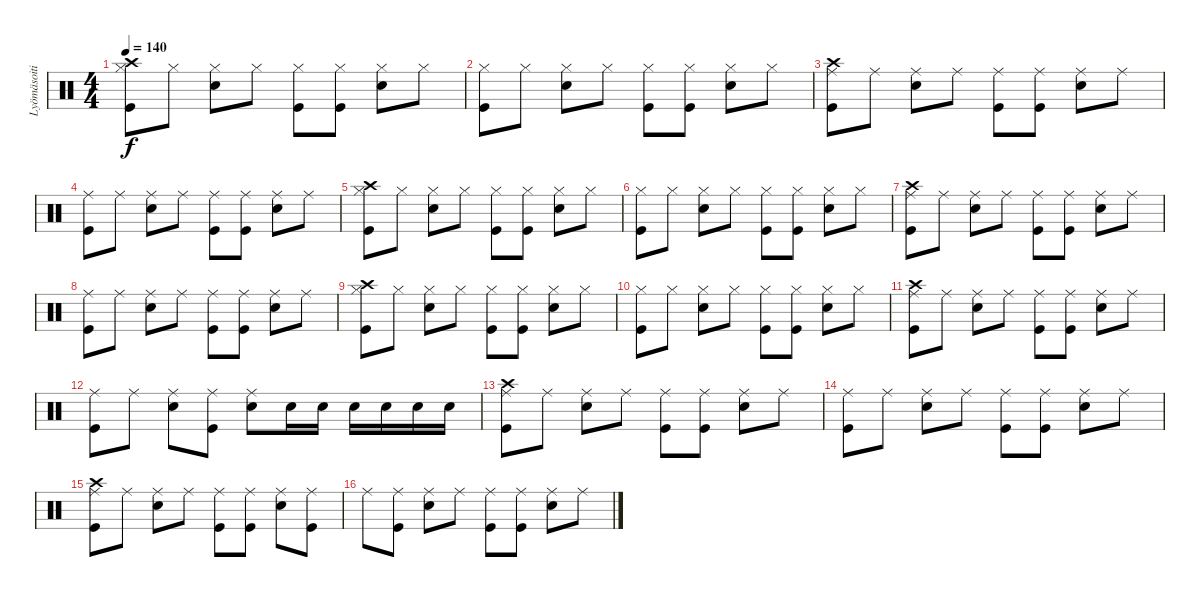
\track ("Lyömäsoitin" "Lyömäsoiti") {instrument percussion}
\staff {score}
\articulation defaults
\ts (4 4)
\tempo 140
\clef neutral
\ks c
("Crash high (hit)" "Hi-Hat (closed)" "Kick (hit)").8{dy f} "Hi-Hat (closed)".8 ("Hi-Hat (closed)" "Snare (hit) 2").8 "Hi-Hat (closed)".8 ("Hi-Hat (closed)" "Kick (hit)").8 ("Hi-Hat (closed)" "Kick (hit)").8 ("Hi-Hat (closed)" "Snare (hit) 2").8 "Hi-Hat (closed)".8 |
("Hi-Hat (closed)" "Kick (hit)").8 "Hi-Hat (closed)".8 ("Hi-Hat (closed)" "Snare (hit) 2").8 "Hi-Hat (closed)".8 ("Hi-Hat (closed)" "Kick (hit)").8 ("Hi-Hat (closed)" "Kick (hit)").8 ("Hi-Hat (closed)" "Snare (hit) 2").8 "Hi-Hat (closed)".8 |
("Crash high (hit)" "Ride (middle)" "Kick (hit)").8 "Ride (middle)".8 ("Ride (middle)" "Snare (hit) 2").8 "Ride (middle)".8 ("Ride (middle)" "Kick (hit)").8 ("Ride (middle)" "Kick (hit)").8 ("Ride (middle)" "Snare (hit) 2").8 "Ride (middle)".8 |
("Ride (middle)" "Kick (hit)").8 "Ride (middle)".8 ("Ride (middle)" "Snare (hit) 2").8 "Ride (middle)".8 ("Ride (middle)" "Kick (hit)").8 ("Ride (middle)" "Kick (hit)").8 ("Ride (middle)" "Snare (hit) 2").8 "Ride (middle)".8 |
("Crash high (hit)" "Hi-Hat (closed)" "Kick (hit)").8 "Hi-Hat (closed)".8 ("Hi-Hat (closed)" "Snare (hit) 2").8 "Hi-Hat (closed)".8 ("Hi-Hat (closed)" "Kick (hit)").8 ("Hi-Hat (closed)" "Kick (hit)").8 ("Hi-Hat (closed)" "Snare (hit) 2").8 "Hi-Hat (closed)".8 |
("Hi-Hat (closed)" "Kick (hit)").8 "Hi-Hat (closed)".8 ("Hi-Hat (closed)" "Snare (hit) 2").8 "Hi-Hat (closed)".8 ("Hi-Hat (closed)" "Kick (hit)").8 ("Hi-Hat (closed)" "Kick (hit)").8 ("Hi-Hat (closed)" "Snare (hit) 2").8 "Hi-Hat (closed)".8 |
("Crash high (hit)" "Ride (middle)" "Kick (hit)").8 "Ride (middle)".8 ("Ride (middle)" "Snare (hit) 2").8 "Ride (middle)".8 ("Ride (middle)" "Kick (hit)").8 ("Ride (middle)" "Kick (hit)").8 ("Ride (middle)" "Snare (hit) 2").8 "Ride (middle)".8 |
("Ride (middle)" "Kick (hit)").8 "Ride (middle)".8 ("Ride (middle)" "Snare (hit) 2").8 "Ride (middle)".8 ("Ride (middle)" "Kick (hit)").8 ("Ride (middle)" "Kick (hit)").8 ("Ride (middle)" "Snare (hit) 2").8 "Ride (middle)".8 |
("Crash high (hit)" "Hi-Hat (closed)" "Kick (hit)").8 "Hi-Hat (closed)".8 ("Hi-Hat (closed)" "Snare (hit) 2").8 "Hi-Hat (closed)".8 ("Hi-Hat (closed)" "Kick (hit)").8 ("Hi-Hat (closed)" "Kick (hit)").8 ("Hi-Hat (closed)" "Snare (hit) 2").8 "Hi-Hat (closed)".8 |
("Hi-Hat (closed)" "Kick (hit)").8 "Hi-Hat (closed)".8 ("Hi-Hat (closed)" "Snare (hit) 2").8 "Hi-Hat (closed)".8 ("Hi-Hat (closed)" "Kick (hit)").8 ("Hi-Hat (closed)" "Kick (hit)").8 ("Hi-Hat (closed)" "Snare (hit) 2").8 "Hi-Hat (closed)".8 |
("Crash high (hit)" "Ride (middle)" "Kick (hit)").8 "Ride (middle)".8 ("Ride (middle)" "Snare (hit) 2").8 "Ride (middle)".8 ("Ride (middle)" "Kick (hit)").8 ("Ride (middle)" "Kick (hit)").8 ("Ride (middle)" "Snare (hit) 2").8 "Ride (middle)".8 |
("Ride (middle)" "Kick (hit)").8 "Ride (middle)".8 ("Ride (middle)" "Snare (hit) 2").8 ("Ride (middle)" "Kick (hit)").8 ("Ride (middle)" "Snare (hit) 2").8 "Snare (hit) 2".16 "Snare (hit) 2".16 "Snare (hit) 2".16 "Snare (hit) 2".16 "Snare (hit) 2".16 "Snare (hit) 2".16 |
("Crash high (hit)" "Ride (middle)" "Kick (hit)").8 "Ride (middle)".8 ("Ride (middle)" "Snare (hit) 2").8 "Ride (middle)".8 ("Ride (middle)" "Kick (hit)").8 ("Ride (middle)" "Kick (hit)").8 ("Ride (middle)" "Snare (hit) 2").8 "Ride (middle)".8 |
("Ride (middle)" "Kick (hit)").8 "Ride (middle)".8 ("Ride (middle)" "Snare (hit) 2").8 "Ride (middle)".8 ("Ride (middle)" "Kick (hit)").8 ("Ride (middle)" "Kick (hit)").8 ("Ride (middle)" "Snare (hit) 2").8 "Ride (middle)".8 |
("Crash high (hit)" "Ride (middle)" "Kick (hit)").8 "Ride (middle)".8 ("Ride (middle)" "Snare (hit) 2").8 "Ride (middle)".8 ("Ride (middle)" "Kick (hit)").8 ("Ride (middle)" "Kick (hit)").8 ("Ride (middle)" "Snare (hit) 2").8 ("Ride (middle)" "Kick (hit)").8 |
"Ride (middle)".8 ("Ride (middle)" "Kick (hit)").8 ("Ride (middle)" "Snare (hit) 2").8 "Ride (middle)".8 ("Ride (middle)" "Kick (hit)").8 ("Ride (middle)" "Kick (hit)").8 ("Ride (middle)" "Snare (hit) 2").8 "Ride (middle)".8
